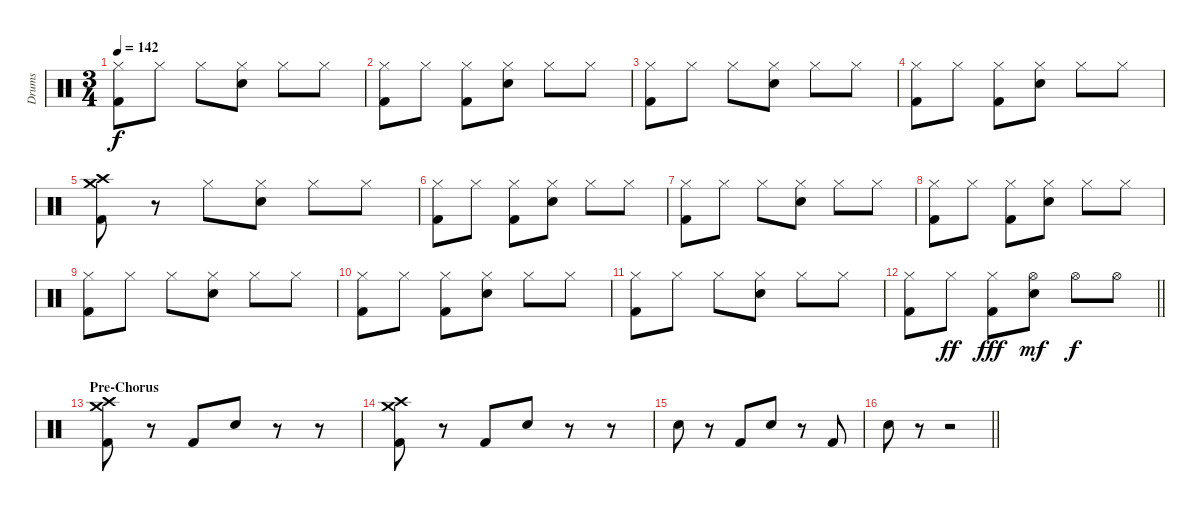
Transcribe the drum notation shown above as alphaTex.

\track ("Drums" "Drums") {instrument percussion}
\staff {score}
\articulation defaults
\ts (3 4)
\tempo 142
\clef neutral
\ks c
("Hi-Hat (closed)" "Kick (hit) 2").8{dy f} "Hi-Hat (closed)".8 "Hi-Hat (closed)".8 ("Hi-Hat (closed)" "Electric Snare (hit)").8 "Hi-Hat (closed)".8 "Hi-Hat (closed)".8 |
("Hi-Hat (closed)" "Kick (hit) 2").8 "Hi-Hat (closed)".8 ("Hi-Hat (closed)" "Kick (hit) 2").8 ("Hi-Hat (closed)" "Electric Snare (hit)").8 "Hi-Hat (closed)".8 "Hi-Hat (closed)".8 |
("Hi-Hat (closed)" "Kick (hit) 2").8 "Hi-Hat (closed)".8 "Hi-Hat (closed)".8 ("Hi-Hat (closed)" "Electric Snare (hit)").8 "Hi-Hat (closed)".8 "Hi-Hat (closed)".8 |
("Hi-Hat (closed)" "Kick (hit) 2").8 "Hi-Hat (closed)".8 ("Hi-Hat (closed)" "Kick (hit) 2").8 ("Hi-Hat (closed)" "Electric Snare (hit)").8 "Hi-Hat (closed)".8 "Hi-Hat (closed)".8 |
("Crash medium (hit)" "Crash high (hit)" "Kick (hit) 2").8 r.8 "Hi-Hat (closed)".8 ("Hi-Hat (closed)" "Electric Snare (hit)").8 "Hi-Hat (closed)".8 "Hi-Hat (closed)".8 |
("Hi-Hat (closed)" "Kick (hit) 2").8 "Hi-Hat (closed)".8 ("Hi-Hat (closed)" "Kick (hit) 2").8 ("Hi-Hat (closed)" "Electric Snare (hit)").8 "Hi-Hat (closed)".8 "Hi-Hat (closed)".8 |
("Hi-Hat (closed)" "Kick (hit) 2").8 "Hi-Hat (closed)".8 "Hi-Hat (closed)".8 ("Hi-Hat (closed)" "Electric Snare (hit)").8 "Hi-Hat (closed)".8 "Hi-Hat (closed)".8 |
("Hi-Hat (closed)" "Kick (hit) 2").8 "Hi-Hat (closed)".8 ("Hi-Hat (closed)" "Kick (hit) 2").8 ("Hi-Hat (closed)" "Electric Snare (hit)").8 "Hi-Hat (closed)".8 "Hi-Hat (closed)".8 |
("Hi-Hat (closed)" "Kick (hit) 2").8 "Hi-Hat (closed)".8 "Hi-Hat (closed)".8 ("Hi-Hat (closed)" "Electric Snare (hit)").8 "Hi-Hat (closed)".8 "Hi-Hat (closed)".8 |
("Hi-Hat (closed)" "Kick (hit) 2").8 "Hi-Hat (closed)".8 ("Hi-Hat (closed)" "Kick (hit) 2").8 ("Hi-Hat (closed)" "Electric Snare (hit)").8 "Hi-Hat (closed)".8 "Hi-Hat (closed)".8 |
("Hi-Hat (closed)" "Kick (hit) 2").8 "Hi-Hat (closed)".8 "Hi-Hat (closed)".8 ("Hi-Hat (closed)" "Electric Snare (hit)").8 "Hi-Hat (closed)".8 "Hi-Hat (closed)".8 |
\barLineRight lightlight
("Hi-Hat (closed)" "Kick (hit) 2").8 "Hi-Hat (closed)".8{dy ff} ("Hi-Hat (closed)" "Kick (hit) 2").8{dy fff} ("Hi-Hat (open)" "Electric Snare (hit)").8{dy mf} "Hi-Hat (open)".8{dy f} "Hi-Hat (open)".8 |
\section ("" "Pre-Chorus")
("Crash medium (hit)" "Crash high (hit)" "Kick (hit) 2").8 r.8 "Kick (hit) 2".8 "Electric Snare (hit)".8 r.8 r.8 |
("Crash medium (hit)" "Crash high (hit)" "Kick (hit) 2").8 r.8 "Kick (hit) 2".8 "Electric Snare (hit)".8 r.8 r.8 |
"Electric Snare (hit)".8 r.8 "Kick (hit) 2".8 "Electric Snare (hit)".8 r.8 "Kick (hit) 2".8 |
\barLineRight lightlight "Electric Snare (hit)".8
r.8 r.2
